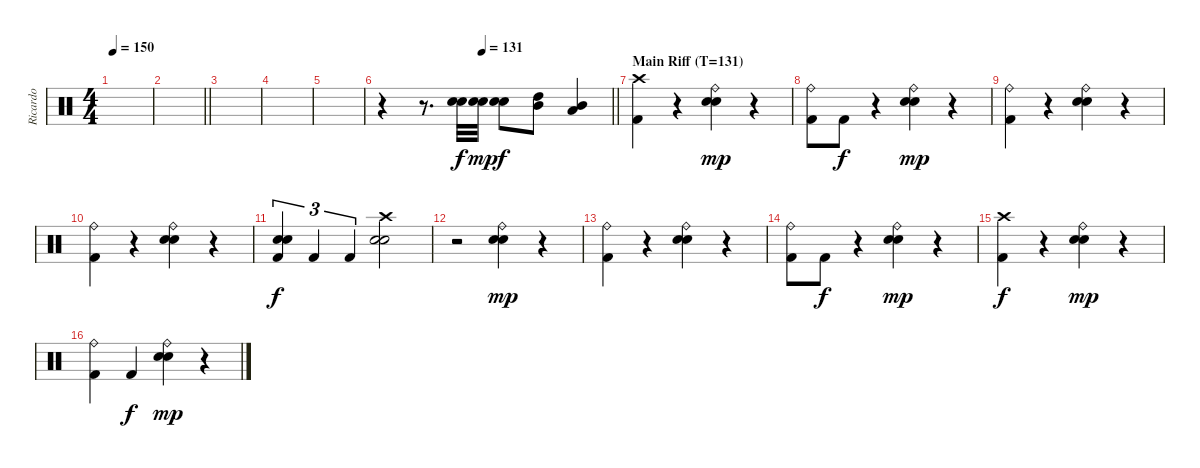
\track ("Ricardo" "Ricardo") {instrument percussion}
\staff {score}
\articulation defaults
\ts (4 4)
\tempo 150
\clef neutral
\ks c
|
\barLineRight lightlight
|
|
|
|
\tempo (131 0.4375)
\barLineRight lightlight
r.4 r.8{d} ("Electric Snare (hit)" "Snare (hit) 2").32 ("Electric Snare (hit)" "Snare (hit) 2").32{dy mp} ("Electric Snare (hit)" "Snare (hit) 2").8{dy f} ("High Tom (hit)" "Mid Tom (hit)").8 ("Mid Tom (hit)" "Low Tom (hit)").4 |
\section ("" "Main Riff (T=131)")
("Crash high (hit)" "Kick (hit) 2").4 r.4 ("Ride (bell)" "Electric Snare (hit)" "Snare (hit) 2").4{dy mp} r.4 |
("Ride (bell)" "Kick (hit) 2").8 "Kick (hit) 2".8{dy f} r.4 ("Ride (bell)" "Electric Snare (hit)" "Snare (hit) 2").4{dy mp} r.4 |
("Ride (bell)" "Kick (hit) 2").4 r.4 ("Ride (bell)" "Electric Snare (hit)" "Snare (hit) 2").4 r.4 |
("Ride (bell)" "Kick (hit) 2").4 r.4 ("Ride (bell)" "Electric Snare (hit)" "Snare (hit) 2").4 r.4 |
("Electric Snare (hit)" "Snare (hit) 2" "Kick (hit) 2").4{tu (3 2) dy f} "Kick (hit) 2".4{tu (3 2)} "Kick (hit) 2".4{tu (3 2)} ("Crash high (hit)" "Electric Snare (hit)" "Snare (hit) 2").2 |
r.2 ("Ride (bell)" "Electric Snare (hit)" "Snare (hit) 2").4{dy mp} r.4 |
("Ride (bell)" "Kick (hit) 2").4 r.4 ("Ride (bell)" "Electric Snare (hit)" "Snare (hit) 2").4 r.4 |
("Ride (bell)" "Kick (hit) 2").8 "Kick (hit) 2".8{dy f} r.4 ("Ride (bell)" "Electric Snare (hit)" "Snare (hit) 2").4{dy mp} r.4 |
("Crash high (hit)" "Kick (hit) 2").4{dy f} r.4 ("Ride (bell)" "Electric Snare (hit)" "Snare (hit) 2").4{dy mp} r.4 |
("Ride (bell)" "Kick (hit) 2").4 "Kick (hit) 2".4{dy f} ("Ride (bell)" "Electric Snare (hit)" "Snare (hit) 2").4{dy mp} r.4
